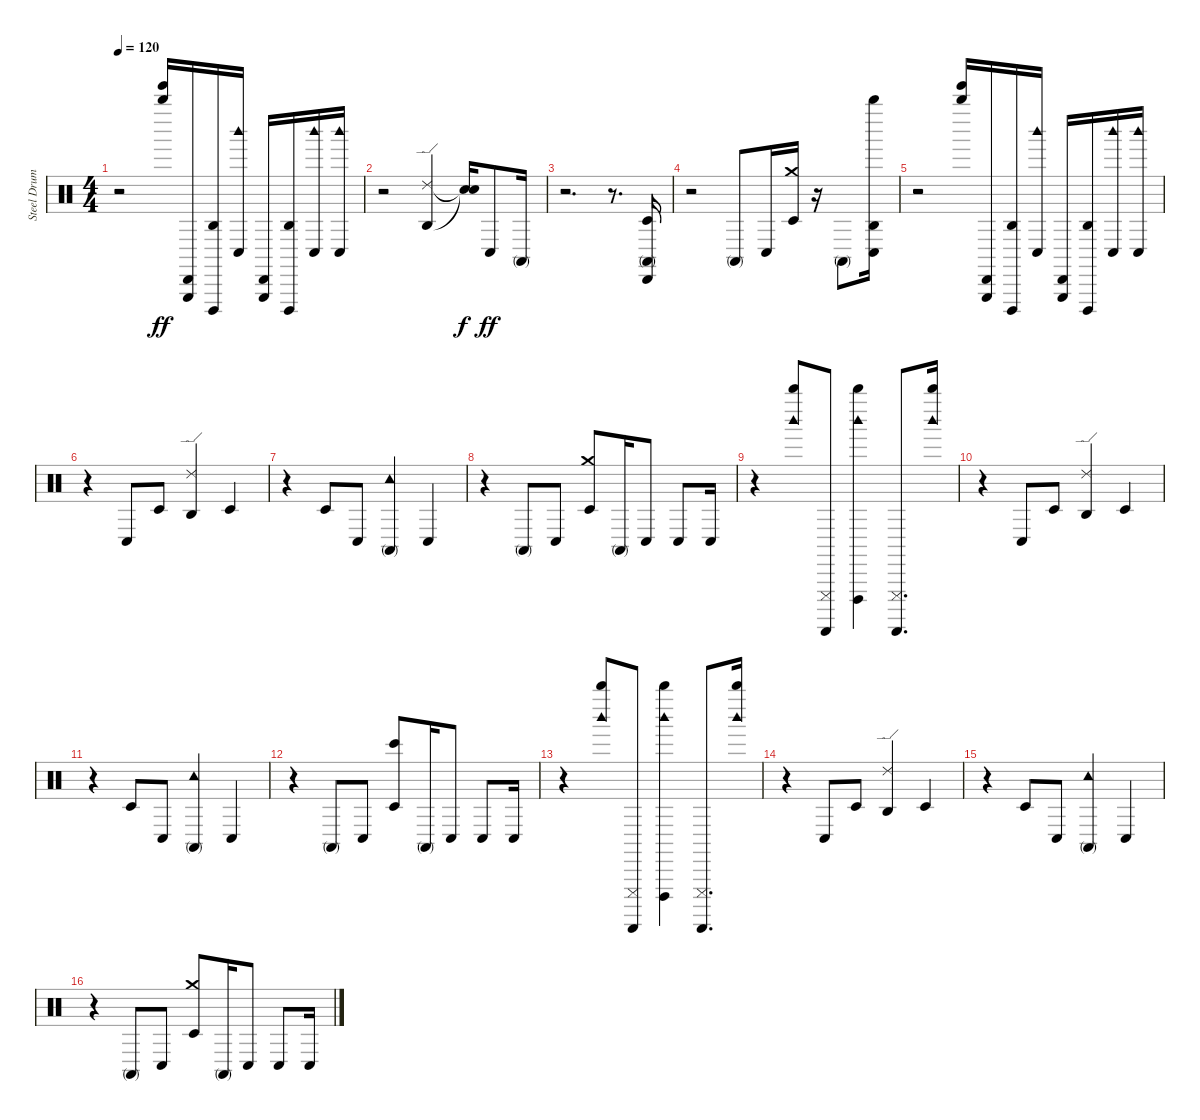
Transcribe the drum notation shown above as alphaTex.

\track ("Steel Drums" "Steel Drum") {instrument percussion}
\staff {score}
\articulation defaults
\ts (4 4)
\tempo 120
\clef neutral
\ks c
r.2{dy ff} ("Whistle high (hit)" "Tinkle Bell (hit)").16 ("Cabasa (hit)" "Triangle (hit)").16 ("Agogo high (hit)" "Cuica (open)").16 ("Woodblock high (hit)" "Conga low (hit)").16 ("Cabasa (hit)" "Triangle (hit)").16 ("Agogo high (hit)" "Cuica (open)").16 ("Conga low (hit)" "Woodblock high (hit)").16 ("Conga low (hit)" "Woodblock high (hit)").16 |
r.2 ("Ride (edge) 2" "Agogo high (hit)").4 ("Snare (hit)"{t} "Snare (hit)"{t}).16{dy f} "Conga low (hit)".8{dy ff} "Conga high (mute)".16 |
r.2{d} r.8{d} ("Conga high (mute)" "Timbale low (hit)" "Cabasa (hit)").16 |
r.2 "Conga high (mute)".8 "Conga low (hit)".16 ("Timbale low (hit)" "Crash medium (hit)").16 r.16 "Conga high (mute)".8 ("Conga low (hit)" "Whistle high (hit)" "Agogo high (hit)").16 |
r.2 ("Whistle high (hit)" "Tinkle Bell (hit)").16 ("Triangle (hit)" "Cabasa (hit)").16 ("Agogo high (hit)" "Cuica (open)").16 ("Woodblock high (hit)" "Conga low (hit)").16 ("Cabasa (hit)" "Triangle (hit)").16 ("Cuica (open)" "Agogo high (hit)").16 ("Woodblock high (hit)" "Conga low (hit)").16 ("Conga low (hit)" "Woodblock high (hit)").16 |
r.4 "Conga low (hit)".8 "Timbale low (hit)".8 ("Agogo high (hit)" "Ride (edge) 2").4 "Timbale low (hit)".4 |
r.4 "Timbale low (hit)".8 "Conga low (hit)".8 ("Conga high (mute)" "Tambourine (hit)").4 "Conga low (hit)".4 |
r.4 "Conga high (mute)".8 "Conga low (hit)".8 ("Crash medium (hit)" "Timbale low (hit)").8 "Conga high (mute)".16 "Conga low (hit)".8 "Conga low (hit)".8 "Conga low (hit)".16 |
r.4 ("Woodblock high (hit)" "Whistle high (hit)").8 ("Cuica (mute)" "Guiro (scrap-return)").8 ("Cuica (open)" "Whistle high (hit)" "Woodblock high (hit)").4 ("Guiro (scrap-return)" "Cuica (mute)").8{d} ("Woodblock high (hit)" "Whistle high (hit)").16 |
r.4 "Conga low (hit)".8 "Timbale low (hit)".8 ("Ride (edge) 2" "Agogo high (hit)").4 "Timbale low (hit)".4 |
r.4 "Timbale low (hit)".8 "Conga low (hit)".8 ("Tambourine (hit)" "Conga high (mute)").4 "Conga low (hit)".4 |
r.4 "Conga high (mute)".8 "Conga low (hit)".8 ("Timbale low (hit)" "Bongo High (hit)").8 "Conga high (mute)".16 "Conga low (hit)".8 "Conga low (hit)".8 "Conga low (hit)".16 |
r.4 ("Whistle high (hit)" "Woodblock high (hit)").8 ("Cuica (mute)" "Guiro (scrap-return)").8 ("Cuica (open)" "Woodblock high (hit)" "Whistle high (hit)").4 ("Guiro (scrap-return)" "Cuica (mute)").8{d} ("Whistle high (hit)" "Woodblock high (hit)").16 |
r.4 "Conga low (hit)".8 "Timbale low (hit)".8 ("Ride (edge) 2" "Agogo high (hit)").4 "Timbale low (hit)".4 |
r.4 "Timbale low (hit)".8 "Conga low (hit)".8 ("Tambourine (hit)" "Conga high (mute)").4 "Conga low (hit)".4 |
r.4 "Conga high (mute)".8 "Conga low (hit)".8 ("Crash medium (hit)" "Timbale low (hit)").8 "Conga high (mute)".16 "Conga low (hit)".8 "Conga low (hit)".8 "Conga low (hit)".16
